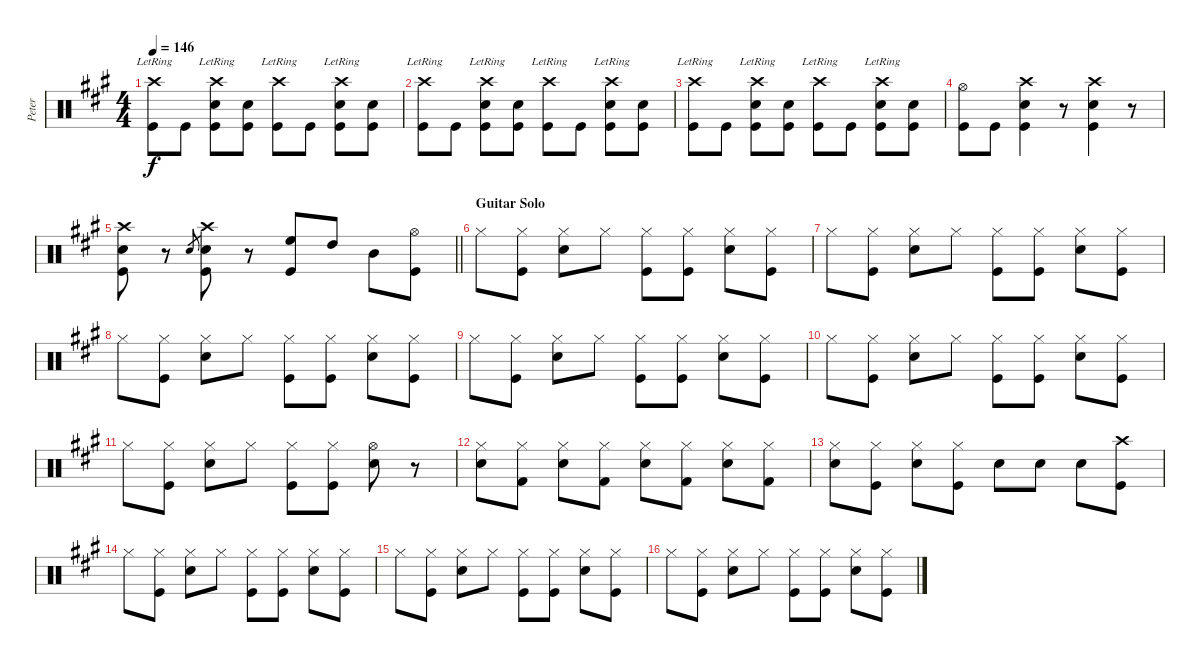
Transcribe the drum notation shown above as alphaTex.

\track ("Peter" "Peter") {instrument percussion}
\staff {score}
\articulation defaults
\ts (4 4)
\tempo 146
\clef neutral
\ks a
("Crash high (hit)"{lr} "Kick (hit)").8{dy f} "Kick (hit)".8 ("Crash high (hit)"{lr} "Snare (hit) 2" "Kick (hit)").8 ("Snare (hit) 2" "Kick (hit)").8 ("Crash high (hit)"{lr} "Kick (hit)").8 "Kick (hit)".8 ("Crash high (hit)"{lr} "Snare (hit) 2" "Kick (hit)").8 ("Snare (hit) 2" "Kick (hit)").8 |
("Crash high (hit)"{lr} "Kick (hit)").8 "Kick (hit)".8 ("Crash high (hit)"{lr} "Snare (hit) 2" "Kick (hit)").8 ("Snare (hit) 2" "Kick (hit)").8 ("Crash high (hit)"{lr} "Kick (hit)").8 "Kick (hit)".8 ("Crash high (hit)"{lr} "Snare (hit) 2" "Kick (hit)").8 ("Snare (hit) 2" "Kick (hit)").8 |
("Crash high (hit)"{lr} "Kick (hit)").8 "Kick (hit)".8 ("Crash high (hit)"{lr} "Snare (hit) 2" "Kick (hit)").8 ("Snare (hit) 2" "Kick (hit)").8 ("Crash high (hit)"{lr} "Kick (hit)").8 "Kick (hit)".8 ("Crash high (hit)"{lr} "Snare (hit) 2" "Kick (hit)").8 ("Snare (hit) 2" "Kick (hit)").8 |
("Hi-Hat (open)" "Kick (hit)").8 "Kick (hit)".8 ("Crash high (hit)" "Snare (hit) 2" "Kick (hit)").4 r.8 ("Crash high (hit)" "Snare (hit) 2" "Kick (hit)").4 r.8 |
\barLineRight lightlight
("Crash high (hit)" "Snare (hit) 2" "Kick (hit)").8 r.8 "Snare (hit) 2".8{gr} ("Crash high (hit)" "Snare (hit) 2" "Kick (hit)").8 r.8 ("High Floor Tom (hit)" "Kick (hit)").8 "High Tom (hit)".8 "Mid Tom (hit)".8 ("Hi-Hat (open)" "Kick (hit)").8 |
\section ("" "Guitar Solo")
"Hi-Hat (closed)".8 ("Hi-Hat (closed)" "Kick (hit)").8 ("Hi-Hat (closed)" "Snare (hit) 2").8 "Hi-Hat (closed)".8 ("Hi-Hat (closed)" "Kick (hit)").8 ("Hi-Hat (closed)" "Kick (hit)").8 ("Hi-Hat (closed)" "Snare (hit) 2").8 ("Hi-Hat (closed)" "Kick (hit)").8 |
"Hi-Hat (closed)".8 ("Hi-Hat (closed)" "Kick (hit)").8 ("Hi-Hat (closed)" "Snare (hit) 2").8 "Hi-Hat (closed)".8 ("Hi-Hat (closed)" "Kick (hit)").8 ("Hi-Hat (closed)" "Kick (hit)").8 ("Hi-Hat (closed)" "Snare (hit) 2").8 ("Hi-Hat (closed)" "Kick (hit)").8 |
"Hi-Hat (closed)".8 ("Hi-Hat (closed)" "Kick (hit)").8 ("Hi-Hat (closed)" "Snare (hit) 2").8 "Hi-Hat (closed)".8 ("Hi-Hat (closed)" "Kick (hit)").8 ("Hi-Hat (closed)" "Kick (hit)").8 ("Hi-Hat (closed)" "Snare (hit) 2").8 ("Hi-Hat (closed)" "Kick (hit)").8 |
"Hi-Hat (closed)".8 ("Hi-Hat (closed)" "Kick (hit)").8 ("Hi-Hat (closed)" "Snare (hit) 2").8 "Hi-Hat (closed)".8 ("Hi-Hat (closed)" "Kick (hit)").8 ("Hi-Hat (closed)" "Kick (hit)").8 ("Hi-Hat (closed)" "Snare (hit) 2").8 ("Hi-Hat (closed)" "Kick (hit)").8 |
"Hi-Hat (closed)".8 ("Hi-Hat (closed)" "Kick (hit)").8 ("Hi-Hat (closed)" "Snare (hit) 2").8 "Hi-Hat (closed)".8 ("Hi-Hat (closed)" "Kick (hit)").8 ("Hi-Hat (closed)" "Kick (hit)").8 ("Hi-Hat (closed)" "Snare (hit) 2").8 ("Hi-Hat (closed)" "Kick (hit)").8 |
"Hi-Hat (closed)".8 ("Hi-Hat (closed)" "Kick (hit)").8 ("Hi-Hat (closed)" "Snare (hit) 2").8 "Hi-Hat (closed)".8 ("Hi-Hat (closed)" "Kick (hit)").8 ("Hi-Hat (closed)" "Kick (hit)").8 ("Hi-Hat (open)" "Snare (hit) 2").8 r.8 |
("Hi-Hat (closed)" "Snare (hit) 2").8 ("Hi-Hat (closed)" "Kick (hit) 2").8 ("Hi-Hat (closed)" "Snare (hit) 2").8 ("Hi-Hat (closed)" "Kick (hit) 2").8 ("Hi-Hat (closed)" "Snare (hit) 2").8 ("Hi-Hat (closed)" "Kick (hit) 2").8 ("Hi-Hat (closed)" "Snare (hit) 2").8 ("Hi-Hat (closed)" "Kick (hit) 2").8 |
("Hi-Hat (closed)" "Snare (hit) 2").8 ("Hi-Hat (closed)" "Kick (hit)").8 ("Hi-Hat (closed)" "Snare (hit) 2").8 ("Hi-Hat (closed)" "Kick (hit)").8 "Snare (hit) 2".8 "Snare (hit) 2".8 "Snare (hit) 2".8 ("Crash high (hit)" "Kick (hit)").8 |
"Hi-Hat (closed)".8 ("Hi-Hat (closed)" "Kick (hit)").8 ("Hi-Hat (closed)" "Snare (hit) 2").8 "Hi-Hat (closed)".8 ("Hi-Hat (closed)" "Kick (hit)").8 ("Hi-Hat (closed)" "Kick (hit)").8 ("Hi-Hat (closed)" "Snare (hit) 2").8 ("Hi-Hat (closed)" "Kick (hit)").8 |
"Hi-Hat (closed)".8 ("Hi-Hat (closed)" "Kick (hit)").8 ("Hi-Hat (closed)" "Snare (hit) 2").8 "Hi-Hat (closed)".8 ("Hi-Hat (closed)" "Kick (hit)").8 ("Hi-Hat (closed)" "Kick (hit)").8 ("Hi-Hat (closed)" "Snare (hit) 2").8 ("Hi-Hat (closed)" "Kick (hit)").8 |
"Hi-Hat (closed)".8 ("Hi-Hat (closed)" "Kick (hit)").8 ("Hi-Hat (closed)" "Snare (hit) 2").8 "Hi-Hat (closed)".8 ("Hi-Hat (closed)" "Kick (hit)").8 ("Hi-Hat (closed)" "Kick (hit)").8 ("Hi-Hat (closed)" "Snare (hit) 2").8 ("Hi-Hat (closed)" "Kick (hit)").8
